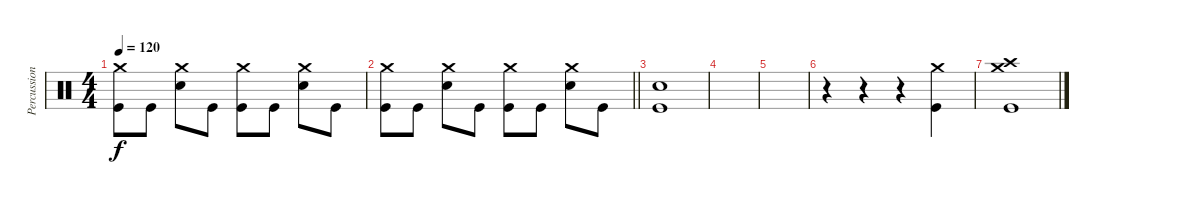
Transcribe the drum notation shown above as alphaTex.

\track ("Percussion" "Percussion") {instrument percussion}
\staff {score}
\articulation defaults
\ts (4 4)
\tempo 120
\clef neutral
\ks c
("Crash medium (hit)" "Kick (hit)").8{dy f} "Kick (hit)".8 ("Crash medium (hit)" "Snare (hit) 2").8 "Kick (hit)".8 ("Crash medium (hit)" "Kick (hit)").8 "Kick (hit)".8 ("Crash medium (hit)" "Snare (hit) 2").8 "Kick (hit)".8 |
\barLineRight lightlight
("Crash medium (hit)" "Kick (hit)").8 "Kick (hit)".8 ("Crash medium (hit)" "Snare (hit) 2").8 "Kick (hit)".8 ("Crash medium (hit)" "Kick (hit)").8 "Kick (hit)".8 ("Crash medium (hit)" "Snare (hit) 2").8 "Kick (hit)".8 |
("Snare (hit) 2" "Kick (hit)").1 |
|
|
r.4 r.4 r.4 ("Crash medium (hit)" "Kick (hit)").4 |
("Crash medium (hit)" "Crash high (hit)" "Kick (hit)").1
